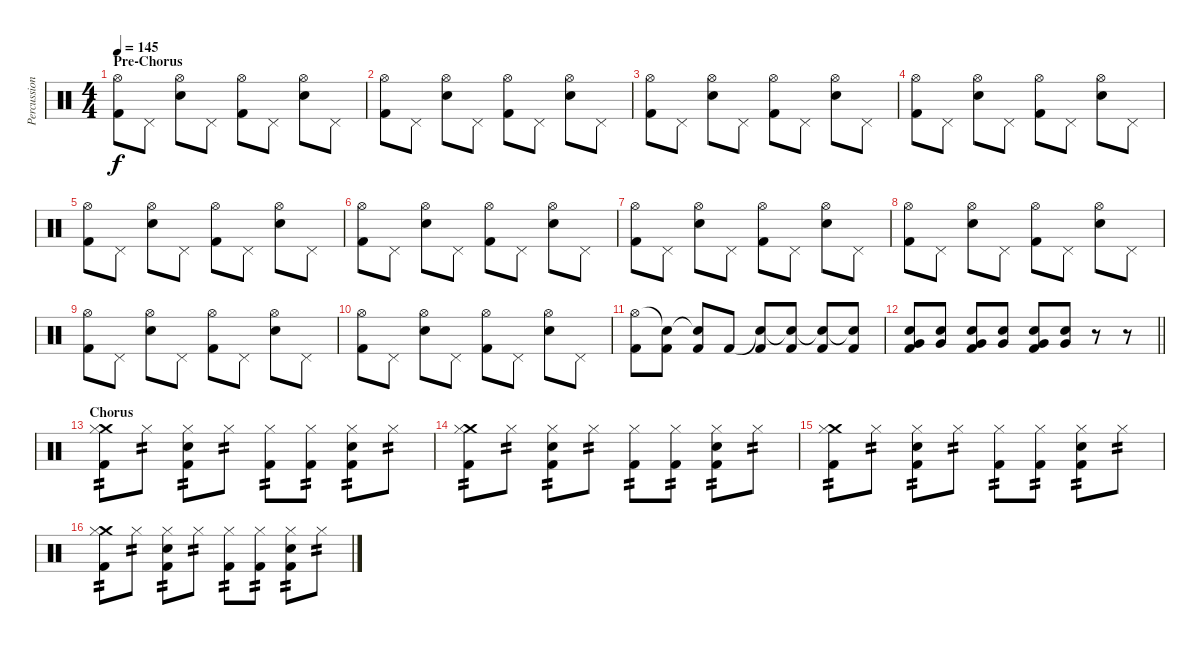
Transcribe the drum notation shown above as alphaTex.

\track ("Percussion" "Percussion") {instrument percussion}
\staff {score}
\articulation defaults
\ts (4 4)
\section ("" "Pre-Chorus")
\tempo 145
\clef neutral
\ks c
("Hi-Hat (open)" "Kick (hit) 2").8{dy f} "Pedal Hi-Hat (hit)".8 ("Hi-Hat (open)" "Snare (hit) 2").8 "Pedal Hi-Hat (hit)".8 ("Hi-Hat (open)" "Kick (hit) 2").8 "Pedal Hi-Hat (hit)".8 ("Hi-Hat (open)" "Snare (hit) 2").8 "Pedal Hi-Hat (hit)".8 |
("Hi-Hat (open)" "Kick (hit) 2").8 "Pedal Hi-Hat (hit)".8 ("Hi-Hat (open)" "Snare (hit) 2").8 "Pedal Hi-Hat (hit)".8 ("Hi-Hat (open)" "Kick (hit) 2").8 "Pedal Hi-Hat (hit)".8 ("Hi-Hat (open)" "Snare (hit) 2").8 "Pedal Hi-Hat (hit)".8 |
("Hi-Hat (open)" "Kick (hit) 2").8 "Pedal Hi-Hat (hit)".8 ("Hi-Hat (open)" "Snare (hit) 2").8 "Pedal Hi-Hat (hit)".8 ("Hi-Hat (open)" "Kick (hit) 2").8 "Pedal Hi-Hat (hit)".8 ("Hi-Hat (open)" "Snare (hit) 2").8 "Pedal Hi-Hat (hit)".8 |
("Hi-Hat (open)" "Kick (hit) 2").8 "Pedal Hi-Hat (hit)".8 ("Hi-Hat (open)" "Snare (hit) 2").8 "Pedal Hi-Hat (hit)".8 ("Hi-Hat (open)" "Kick (hit) 2").8 "Pedal Hi-Hat (hit)".8 ("Hi-Hat (open)" "Snare (hit) 2").8 "Pedal Hi-Hat (hit)".8 |
("Hi-Hat (open)" "Kick (hit) 2").8 "Pedal Hi-Hat (hit)".8 ("Hi-Hat (open)" "Snare (hit) 2").8 "Pedal Hi-Hat (hit)".8 ("Hi-Hat (open)" "Kick (hit) 2").8 "Pedal Hi-Hat (hit)".8 ("Hi-Hat (open)" "Snare (hit) 2").8 "Pedal Hi-Hat (hit)".8 |
("Hi-Hat (open)" "Kick (hit) 2").8 "Pedal Hi-Hat (hit)".8 ("Hi-Hat (open)" "Snare (hit) 2").8 "Pedal Hi-Hat (hit)".8 ("Hi-Hat (open)" "Kick (hit) 2").8 "Pedal Hi-Hat (hit)".8 ("Hi-Hat (open)" "Snare (hit) 2").8 "Pedal Hi-Hat (hit)".8 |
("Hi-Hat (open)" "Kick (hit) 2").8 "Pedal Hi-Hat (hit)".8 ("Hi-Hat (open)" "Snare (hit) 2").8 "Pedal Hi-Hat (hit)".8 ("Hi-Hat (open)" "Kick (hit) 2").8 "Pedal Hi-Hat (hit)".8 ("Hi-Hat (open)" "Snare (hit) 2").8 "Pedal Hi-Hat (hit)".8 |
("Hi-Hat (open)" "Kick (hit) 2").8 "Pedal Hi-Hat (hit)".8 ("Hi-Hat (open)" "Snare (hit) 2").8 "Pedal Hi-Hat (hit)".8 ("Hi-Hat (open)" "Kick (hit) 2").8 "Pedal Hi-Hat (hit)".8 ("Hi-Hat (open)" "Snare (hit) 2").8 "Pedal Hi-Hat (hit)".8 |
("Hi-Hat (open)" "Kick (hit) 2").8 "Pedal Hi-Hat (hit)".8 ("Hi-Hat (open)" "Snare (hit) 2").8 "Pedal Hi-Hat (hit)".8 ("Hi-Hat (open)" "Kick (hit) 2").8 "Pedal Hi-Hat (hit)".8 ("Hi-Hat (open)" "Snare (hit) 2").8 "Pedal Hi-Hat (hit)".8 |
("Hi-Hat (open)" "Kick (hit) 2").8 "Pedal Hi-Hat (hit)".8 ("Hi-Hat (open)" "Snare (hit) 2").8 "Pedal Hi-Hat (hit)".8 ("Hi-Hat (open)" "Kick (hit) 2").8 "Pedal Hi-Hat (hit)".8 ("Hi-Hat (open)" "Snare (hit) 2").8 "Pedal Hi-Hat (hit)".8 |
("Hi-Hat (open)" "Kick (hit) 2").8 ("Snare (hit)"{t} "Kick (hit) 2").8 ("Snare (hit)"{t} "Kick (hit) 2").8 "Kick (hit) 2".8 ("Snare (hit)"{t} "Kick (hit) 2").8 ("Snare (hit)"{t} "Kick (hit) 2").8 ("Snare (hit)"{t} "Kick (hit) 2").8 ("Snare (hit)"{t} "Kick (hit) 2").8 |
\barLineRight lightlight
("Very Low Tom (hit)" "Snare (hit) 2" "Kick (hit) 2").8 ("Very Low Tom (hit)" "Snare (hit) 2").8 ("Very Low Tom (hit)" "Snare (hit) 2" "Kick (hit) 2").8 ("Very Low Tom (hit)" "Snare (hit) 2").8 ("Very Low Tom (hit)" "Snare (hit) 2" "Kick (hit) 2").8 ("Very Low Tom (hit)" "Snare (hit) 2").8 r.8 r.8 |
\section ("" "Chorus")
("Crash medium (hit)" "Hi-Hat (closed)" "Kick (hit) 2").8{tp 2} "Hi-Hat (closed)".8{tp 2} ("Hi-Hat (closed)" "Snare (hit) 2" "Kick (hit) 2").8{tp 2} "Hi-Hat (closed)".8{tp 2} ("Hi-Hat (closed)" "Kick (hit) 2").8{tp 2} ("Hi-Hat (closed)" "Kick (hit) 2").8{tp 2} ("Hi-Hat (closed)" "Snare (hit) 2" "Kick (hit) 2").8{tp 2} "Hi-Hat (closed)".8{tp 2} |
("Crash medium (hit)" "Hi-Hat (closed)" "Kick (hit) 2").8{tp 2} "Hi-Hat (closed)".8{tp 2} ("Hi-Hat (closed)" "Snare (hit) 2" "Kick (hit) 2").8{tp 2} "Hi-Hat (closed)".8{tp 2} ("Hi-Hat (closed)" "Kick (hit) 2").8{tp 2} ("Hi-Hat (closed)" "Kick (hit) 2").8{tp 2} ("Hi-Hat (closed)" "Snare (hit) 2" "Kick (hit) 2").8{tp 2} "Hi-Hat (closed)".8{tp 2} |
("Crash medium (hit)" "Hi-Hat (closed)" "Kick (hit) 2").8{tp 2} "Hi-Hat (closed)".8{tp 2} ("Hi-Hat (closed)" "Snare (hit) 2" "Kick (hit) 2").8{tp 2} "Hi-Hat (closed)".8{tp 2} ("Hi-Hat (closed)" "Kick (hit) 2").8{tp 2} ("Hi-Hat (closed)" "Kick (hit) 2").8{tp 2} ("Hi-Hat (closed)" "Snare (hit) 2" "Kick (hit) 2").8{tp 2} "Hi-Hat (closed)".8{tp 2} |
("Crash medium (hit)" "Hi-Hat (closed)" "Kick (hit) 2").8{tp 2} "Hi-Hat (closed)".8{tp 2} ("Hi-Hat (closed)" "Snare (hit) 2" "Kick (hit) 2").8{tp 2} "Hi-Hat (closed)".8{tp 2} ("Hi-Hat (closed)" "Kick (hit) 2").8{tp 2} ("Hi-Hat (closed)" "Kick (hit) 2").8{tp 2} ("Hi-Hat (closed)" "Snare (hit) 2" "Kick (hit) 2").8{tp 2} "Hi-Hat (closed)".8{tp 2}
